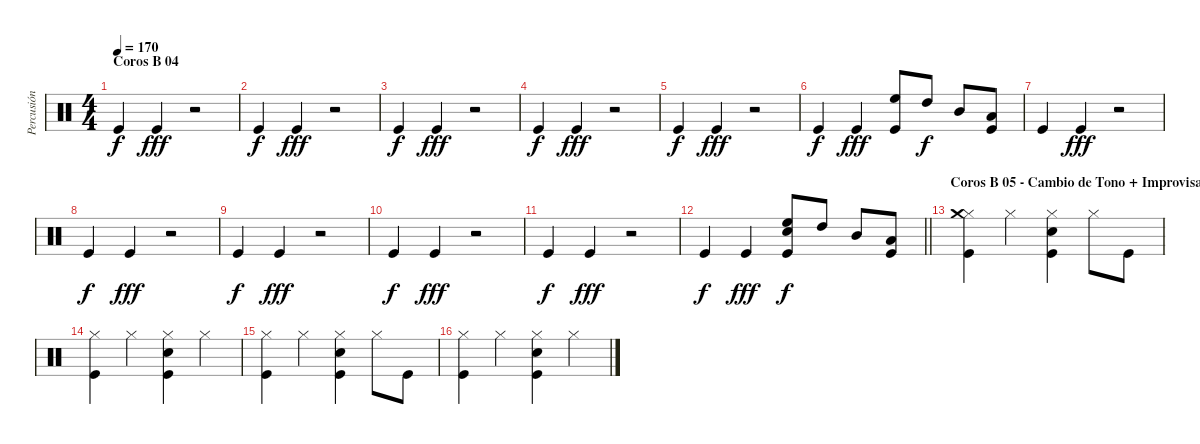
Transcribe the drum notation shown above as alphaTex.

\track ("Percusión" "Percusión") {instrument percussion}
\staff {score}
\articulation defaults
\ts (4 4)
\section ("" "Coros B 04")
\tempo 170
\clef neutral
\ks c "Kick (hit)".4{dy f} "Kick (hit)".4{dy fff}
r.2 |
"Kick (hit)".4{dy f} "Kick (hit)".4{dy fff} r.2 |
"Kick (hit)".4{dy f} "Kick (hit)".4{dy fff} r.2 |
"Kick (hit)".4{dy f} "Kick (hit)".4{dy fff} r.2 |
"Kick (hit)".4{dy f} "Kick (hit)".4{dy fff} r.2 |
"Kick (hit)".4{dy f} "Kick (hit)".4{dy fff} ("High Floor Tom (hit)" "Kick (hit)").8 "High Tom (hit)".8{dy f} "Mid Tom (hit)".8 ("Low Tom (hit)" "Kick (hit)").8 |
"Kick (hit)".4 "Kick (hit)".4{dy fff} r.2 |
"Kick (hit)".4{dy f} "Kick (hit)".4{dy fff} r.2 |
"Kick (hit)".4{dy f} "Kick (hit)".4{dy fff} r.2 |
"Kick (hit)".4{dy f} "Kick (hit)".4{dy fff} r.2 |
"Kick (hit)".4{dy f} "Kick (hit)".4{dy fff} r.2 |
\barLineRight lightlight "Kick (hit)".4{dy f} "Kick (hit)".4{dy fff}
("High Floor Tom (hit)" "Snare (hit) 2" "Kick (hit)").8{dy f} "High Tom (hit)".8 "Mid Tom (hit)".8 ("Low Tom (hit)" "Kick (hit)").8 |
\section ("" "Coros B 05 - Cambio de Tono + Improvisación")
("Hi-Hat (closed)" "Crash medium (hit)" "Kick (hit)").4 "Hi-Hat (closed)".4 ("Hi-Hat (closed)" "Snare (hit) 2" "Kick (hit)").4 "Hi-Hat (closed)".8 "Kick (hit)".8 |
("Hi-Hat (closed)" "Kick (hit)").4 "Hi-Hat (closed)".4 ("Hi-Hat (closed)" "Snare (hit) 2" "Kick (hit)").4 "Hi-Hat (closed)".4 |
("Hi-Hat (closed)" "Kick (hit)").4 "Hi-Hat (closed)".4 ("Hi-Hat (closed)" "Snare (hit) 2" "Kick (hit)").4 "Hi-Hat (closed)".8 "Kick (hit)".8 |
("Hi-Hat (closed)" "Kick (hit)").4 "Hi-Hat (closed)".4 ("Hi-Hat (closed)" "Snare (hit) 2" "Kick (hit)").4 "Hi-Hat (closed)".4
